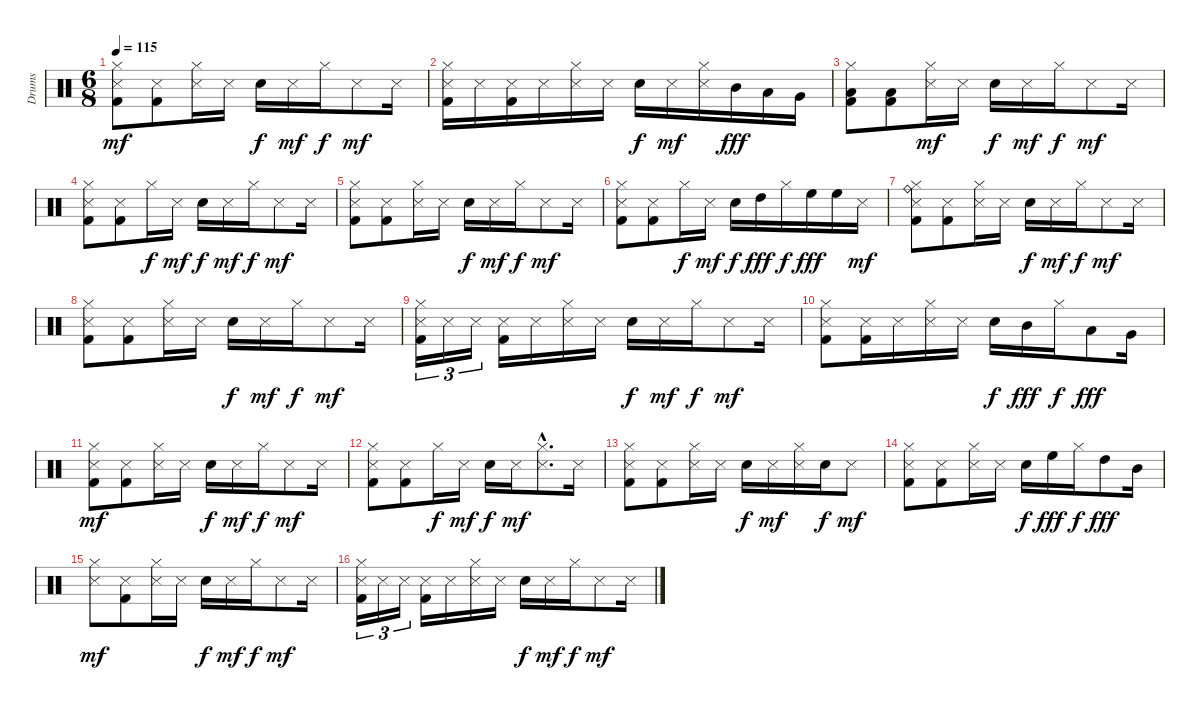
\track ("Drums" "Drums") {instrument percussion}
\staff {score}
\articulation defaults
\ts (6 8)
\tempo 115
\clef neutral
\ks c
("Hi-Hat (closed)" "Snare (side stick) 3" "Kick (hit) 2").8{dy mf} ("Snare (side stick) 3" "Kick (hit) 2").8 ("Hi-Hat (closed)" "Snare (side stick) 3").16 "Snare (side stick) 3".16 "Electric Snare (hit)".16{dy f} "Snare (side stick) 3".16{dy mf} "Hi-Hat (closed)".16{dy f} "Snare (side stick) 3".8{dy mf} "Snare (side stick) 3".16 |
("Hi-Hat (closed)" "Snare (side stick) 3" "Kick (hit) 2").16 "Snare (side stick) 3".16 ("Snare (side stick) 3" "Kick (hit) 2").16 "Snare (side stick) 3".16 ("Hi-Hat (closed)" "Snare (side stick) 3").16 "Snare (side stick) 3".16 "Electric Snare (hit)".16{dy f} "Snare (side stick) 3".16{dy mf} ("Hi-Hat (closed)" "Snare (side stick) 3").16 "Mid Tom (hit)".16{dy fff} "Low Tom (hit)".16 "Very Low Tom (hit)".16 |
("Hi-Hat (closed)" "Low Floor Tom (hit)" "Kick (hit) 2").8 ("Low Floor Tom (hit)" "Kick (hit) 2").8 ("Hi-Hat (closed)" "Snare (side stick) 3").16{dy mf} "Snare (side stick) 3".16 "Electric Snare (hit)".16{dy f} "Snare (side stick) 3".16{dy mf} "Hi-Hat (closed)".16{dy f} "Snare (side stick) 3".8{dy mf} "Snare (side stick) 3".16 |
("Hi-Hat (closed)" "Snare (side stick) 3" "Kick (hit) 2").8 ("Snare (side stick) 3" "Kick (hit) 2").8 "Hi-Hat (closed)".16{dy f} "Snare (side stick) 3".16{dy mf} "Electric Snare (hit)".16{dy f} "Snare (side stick) 3".16{dy mf} "Hi-Hat (closed)".16{dy f} "Snare (side stick) 3".8{dy mf} "Snare (side stick) 3".16 |
("Hi-Hat (closed)" "Snare (side stick) 3" "Kick (hit) 2").8 ("Snare (side stick) 3" "Kick (hit) 2").8 ("Hi-Hat (closed)" "Snare (side stick) 3").16 "Snare (side stick) 3".16 "Electric Snare (hit)".16{dy f} "Snare (side stick) 3".16{dy mf} "Hi-Hat (closed)".16{dy f} "Snare (side stick) 3".8{dy mf} "Snare (side stick) 3".16 |
("Hi-Hat (closed)" "Snare (side stick) 3" "Kick (hit) 2").8 ("Snare (side stick) 3" "Kick (hit) 2").8 "Hi-Hat (closed)".16{dy f} "Snare (side stick) 3".16{dy mf} "Electric Snare (hit)".16{dy f} "High Tom (hit)".16{dy fff} "Hi-Hat (closed)".16{dy f} "High Floor Tom (hit)".16{dy fff} "High Floor Tom (hit)".16 "Snare (side stick) 3".16{dy mf} |
("Ride (bell)" "Hi-Hat (closed)" "Snare (side stick) 3" "Kick (hit) 2").8 ("Snare (side stick) 3" "Kick (hit) 2").8 ("Hi-Hat (closed)" "Snare (side stick) 3").16 "Snare (side stick) 3".16 "Electric Snare (hit)".16{dy f} "Snare (side stick) 3".16{dy mf} "Hi-Hat (closed)".16{dy f} "Snare (side stick) 3".8{dy mf} "Snare (side stick) 3".16 |
("Hi-Hat (closed)" "Snare (side stick) 3" "Kick (hit) 2").8 ("Snare (side stick) 3" "Kick (hit) 2").8 ("Hi-Hat (closed)" "Snare (side stick) 3").16 "Snare (side stick) 3".16 "Electric Snare (hit)".16{dy f} "Snare (side stick) 3".16{dy mf} "Hi-Hat (closed)".16{dy f} "Snare (side stick) 3".8{dy mf} "Snare (side stick) 3".16 |
("Hi-Hat (closed)" "Snare (side stick) 3" "Kick (hit) 2").16{tu (3 2)} "Snare (side stick) 3".16{tu (3 2)} "Snare (side stick) 3".16{tu (3 2)} ("Snare (side stick) 3" "Kick (hit) 2").16 "Snare (side stick) 3".16 ("Hi-Hat (closed)" "Snare (side stick) 3").16 "Snare (side stick) 3".16 "Electric Snare (hit)".16{dy f} "Snare (side stick) 3".16{dy mf} "Hi-Hat (closed)".16{dy f} "Snare (side stick) 3".8{dy mf} "Snare (side stick) 3".16 |
("Hi-Hat (closed)" "Snare (side stick) 3" "Kick (hit) 2").8 ("Snare (side stick) 3" "Kick (hit) 2").16 "Snare (side stick) 3".16 ("Hi-Hat (closed)" "Snare (side stick) 3").16 "Snare (side stick) 3".16 "Electric Snare (hit)".16{dy f} "Mid Tom (hit)".16{dy fff} "Hi-Hat (closed)".16{dy f} "Low Tom (hit)".8{dy fff} "Very Low Tom (hit)".16 |
("Hi-Hat (closed)" "Snare (side stick) 3" "Kick (hit) 2").8{dy mf} ("Snare (side stick) 3" "Kick (hit) 2").8 ("Hi-Hat (closed)" "Snare (side stick) 3").16 "Snare (side stick) 3".16 "Electric Snare (hit)".16{dy f} "Snare (side stick) 3".16{dy mf} "Hi-Hat (closed)".16{dy f} "Snare (side stick) 3".8{dy mf} "Snare (side stick) 3".16 |
("Hi-Hat (closed)" "Snare (side stick) 3" "Kick (hit) 2").8 ("Snare (side stick) 3" "Kick (hit) 2").8 "Hi-Hat (closed)".16{dy f} "Snare (side stick) 3".16{dy mf} "Electric Snare (hit)".16{dy f} "Snare (side stick) 3".16{dy mf} ("Hi-Hat (closed)"{hac} "Snare (side stick) 3"{hac}).8{d} "Snare (side stick) 3".16 |
("Hi-Hat (closed)" "Snare (side stick) 3" "Kick (hit) 2").8 ("Snare (side stick) 3" "Kick (hit) 2").8 ("Hi-Hat (closed)" "Snare (side stick) 3").16 "Snare (side stick) 3".16 "Electric Snare (hit)".16{dy f} "Snare (side stick) 3".16{dy mf} ("Hi-Hat (closed)" "Snare (side stick) 3").16 "Electric Snare (hit)".16{dy f} "Snare (side stick) 3".8{dy mf} |
("Hi-Hat (closed)" "Snare (side stick) 3" "Kick (hit) 2").8 ("Snare (side stick) 3" "Kick (hit) 2").8 ("Hi-Hat (closed)" "Snare (side stick) 3").16 "Snare (side stick) 3".16 "Electric Snare (hit)".16{dy f} "High Floor Tom (hit)".16{dy fff} "Hi-Hat (closed)".16{dy f} "High Tom (hit)".8{dy fff} "Mid Tom (hit)".16 |
("Hi-Hat (closed)" "Snare (side stick) 3").8{dy mf} ("Snare (side stick) 3" "Kick (hit) 2").8 ("Hi-Hat (closed)" "Snare (side stick) 3").16 "Snare (side stick) 3".16 "Electric Snare (hit)".16{dy f} "Snare (side stick) 3".16{dy mf} "Hi-Hat (closed)".16{dy f} "Snare (side stick) 3".8{dy mf} "Snare (side stick) 3".16 |
("Hi-Hat (closed)" "Snare (side stick) 3" "Kick (hit) 2").16{tu (3 2)} "Snare (side stick) 3".16{tu (3 2)} "Snare (side stick) 3".16{tu (3 2)} ("Snare (side stick) 3" "Kick (hit) 2").16 "Snare (side stick) 3".16 ("Hi-Hat (closed)" "Snare (side stick) 3").16 "Snare (side stick) 3".16 "Electric Snare (hit)".16{dy f} "Snare (side stick) 3".16{dy mf} "Hi-Hat (closed)".16{dy f} "Snare (side stick) 3".8{dy mf} "Snare (side stick) 3".16
